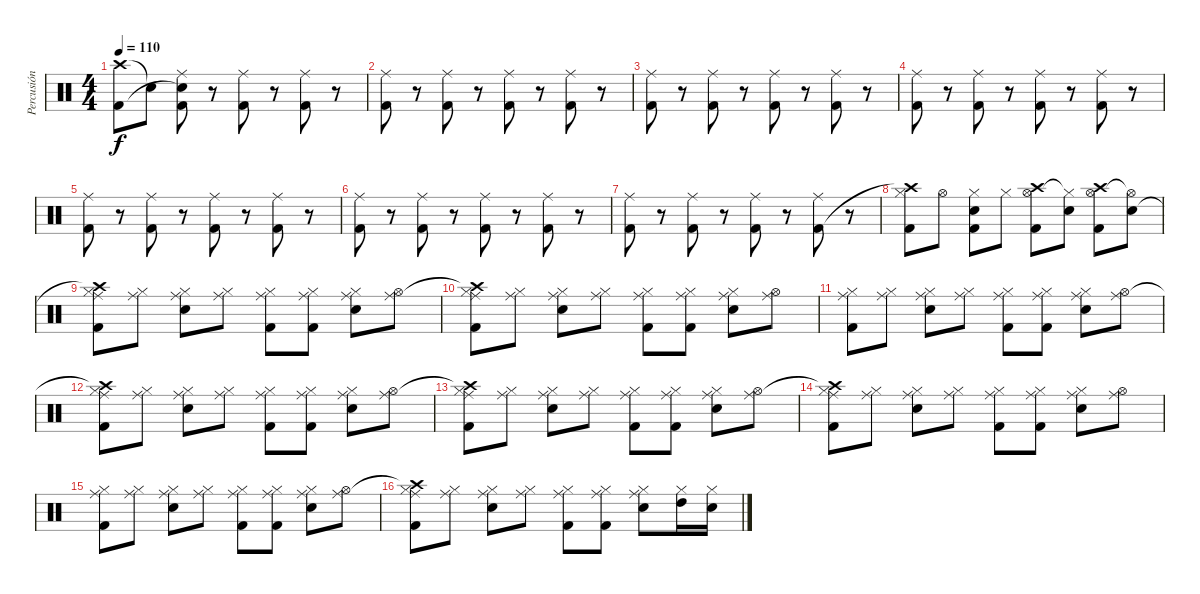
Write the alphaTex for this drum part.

\track ("Percusión" "Percusión") {instrument percussion}
\staff {score}
\articulation defaults
\ts (4 4)
\tempo 110
\clef neutral
\ks c
("Crash high (hit)" "Kick (hit) 2").8{dy f} "Snare (hit)"{t}.8 ("Ride (middle)" "Snare (hit)"{t} "Kick (hit) 2").8 r.8 ("Ride (middle)" "Kick (hit) 2").8 r.8 ("Ride (middle)" "Kick (hit) 2").8 r.8 |
("Ride (middle)" "Kick (hit) 2").8 r.8 ("Ride (middle)" "Kick (hit) 2").8 r.8 ("Ride (middle)" "Kick (hit) 2").8 r.8 ("Ride (middle)" "Kick (hit) 2").8 r.8 |
("Ride (middle)" "Kick (hit) 2").8 r.8 ("Ride (middle)" "Kick (hit) 2").8 r.8 ("Ride (middle)" "Kick (hit) 2").8 r.8 ("Ride (middle)" "Kick (hit) 2").8 r.8 |
("Ride (middle)" "Kick (hit) 2").8 r.8 ("Ride (middle)" "Kick (hit) 2").8 r.8 ("Ride (middle)" "Kick (hit) 2").8 r.8 ("Ride (middle)" "Kick (hit) 2").8 r.8 |
("Ride (middle)" "Kick (hit) 2").8 r.8 ("Ride (middle)" "Kick (hit) 2").8 r.8 ("Ride (middle)" "Kick (hit) 2").8 r.8 ("Ride (middle)" "Kick (hit) 2").8 r.8 |
("Ride (middle)" "Kick (hit) 2").8 r.8 ("Ride (middle)" "Kick (hit) 2").8 r.8 ("Ride (middle)" "Kick (hit) 2").8 r.8 ("Ride (middle)" "Kick (hit) 2").8 r.8 |
("Ride (middle)" "Kick (hit) 2").8 r.8 ("Ride (middle)" "Kick (hit) 2").8 r.8 ("Ride (middle)" "Kick (hit) 2").8 r.8 ("Ride (middle)" "Kick (hit) 2").8 r.8 |
("Hi-Hat (closed)" "Crash high (hit)"{t} "Kick (hit) 2").8 "Hi-Hat (open)".8 ("Hi-Hat (closed)" "Electric Snare (hit)" "Kick (hit) 2").8 "Hi-Hat (closed)".8 ("Hi-Hat (open)" "Crash high (hit)" "Kick (hit) 2").8 ("Hi-Hat (closed)"{t} "Electric Snare (hit)").8 ("Hi-Hat (open)" "Crash high (hit)" "Kick (hit) 2").8 ("Hi-Hat (open)"{t} "Electric Snare (hit)").8 |
("Hi-Hat (closed)" "Crash high (hit)"{t} "Ride (middle)" "Kick (hit) 2").8 ("Hi-Hat (closed)" "Ride (middle)").8 ("Hi-Hat (closed)" "Electric Snare (hit)" "Ride (middle)").8 ("Hi-Hat (closed)" "Ride (middle)").8 ("Hi-Hat (closed)" "Ride (middle)" "Kick (hit) 2").8 ("Hi-Hat (closed)" "Ride (middle)" "Kick (hit) 2").8 ("Hi-Hat (closed)" "Electric Snare (hit)" "Ride (middle)").8 ("Hi-Hat (open)" "Ride (middle)").8 |
("Hi-Hat (closed)" "Crash high (hit)"{t} "Ride (middle)" "Kick (hit) 2").8 ("Hi-Hat (closed)" "Ride (middle)").8 ("Hi-Hat (closed)" "Electric Snare (hit)" "Ride (middle)").8 ("Hi-Hat (closed)" "Ride (middle)").8 ("Hi-Hat (closed)" "Ride (middle)" "Kick (hit) 2").8 ("Hi-Hat (closed)" "Ride (middle)" "Kick (hit) 2").8 ("Hi-Hat (closed)" "Electric Snare (hit)" "Ride (middle)").8 ("Hi-Hat (open)" "Ride (middle)").8 |
("Hi-Hat (closed)" "Ride (middle)" "Kick (hit) 2").8 ("Hi-Hat (closed)" "Ride (middle)").8 ("Hi-Hat (closed)" "Electric Snare (hit)" "Ride (middle)").8 ("Hi-Hat (closed)" "Ride (middle)").8 ("Hi-Hat (closed)" "Ride (middle)" "Kick (hit) 2").8 ("Hi-Hat (closed)" "Ride (middle)" "Kick (hit) 2").8 ("Hi-Hat (closed)" "Electric Snare (hit)" "Ride (middle)").8 ("Hi-Hat (open)" "Ride (middle)").8 |
("Hi-Hat (closed)" "Crash high (hit)"{t} "Ride (middle)" "Kick (hit) 2").8 ("Hi-Hat (closed)" "Ride (middle)").8 ("Hi-Hat (closed)" "Electric Snare (hit)" "Ride (middle)").8 ("Hi-Hat (closed)" "Ride (middle)").8 ("Hi-Hat (closed)" "Ride (middle)" "Kick (hit) 2").8 ("Hi-Hat (closed)" "Ride (middle)" "Kick (hit) 2").8 ("Hi-Hat (closed)" "Electric Snare (hit)" "Ride (middle)").8 ("Hi-Hat (open)" "Ride (middle)").8 |
("Hi-Hat (closed)" "Crash high (hit)"{t} "Ride (middle)" "Kick (hit) 2").8 ("Hi-Hat (closed)" "Ride (middle)").8 ("Hi-Hat (closed)" "Electric Snare (hit)" "Ride (middle)").8 ("Hi-Hat (closed)" "Ride (middle)").8 ("Hi-Hat (closed)" "Ride (middle)" "Kick (hit) 2").8 ("Hi-Hat (closed)" "Ride (middle)" "Kick (hit) 2").8 ("Hi-Hat (closed)" "Electric Snare (hit)" "Ride (middle)").8 ("Hi-Hat (open)" "Ride (middle)").8 |
("Hi-Hat (closed)" "Crash high (hit)"{t} "Ride (middle)" "Kick (hit) 2").8 ("Hi-Hat (closed)" "Ride (middle)").8 ("Hi-Hat (closed)" "Electric Snare (hit)" "Ride (middle)").8 ("Hi-Hat (closed)" "Ride (middle)").8 ("Hi-Hat (closed)" "Ride (middle)" "Kick (hit) 2").8 ("Hi-Hat (closed)" "Ride (middle)" "Kick (hit) 2").8 ("Hi-Hat (closed)" "Electric Snare (hit)" "Ride (middle)").8 ("Hi-Hat (open)" "Ride (middle)").8 |
("Hi-Hat (closed)" "Ride (middle)" "Kick (hit) 2").8 ("Hi-Hat (closed)" "Ride (middle)").8 ("Hi-Hat (closed)" "Electric Snare (hit)" "Ride (middle)").8 ("Hi-Hat (closed)" "Ride (middle)").8 ("Hi-Hat (closed)" "Ride (middle)" "Kick (hit) 2").8 ("Hi-Hat (closed)" "Ride (middle)" "Kick (hit) 2").8 ("Hi-Hat (closed)" "Electric Snare (hit)" "Ride (middle)").8 ("Hi-Hat (open)" "Ride (middle)").8 |
("Hi-Hat (closed)" "Crash high (hit)"{t} "Ride (middle)" "Kick (hit) 2").8 ("Hi-Hat (closed)" "Ride (middle)").8 ("Hi-Hat (closed)" "Electric Snare (hit)" "Ride (middle)").8 ("Hi-Hat (closed)" "Ride (middle)").8 ("Hi-Hat (closed)" "Ride (middle)" "Kick (hit) 2").8 ("Hi-Hat (closed)" "Ride (middle)" "Kick (hit) 2").8 ("Hi-Hat (closed)" "Electric Snare (hit)" "Ride (middle)").8 ("Hi-Hat (closed)" "High Tom (hit)").16 ("Hi-Hat (closed)" "Electric Snare (hit)").16
